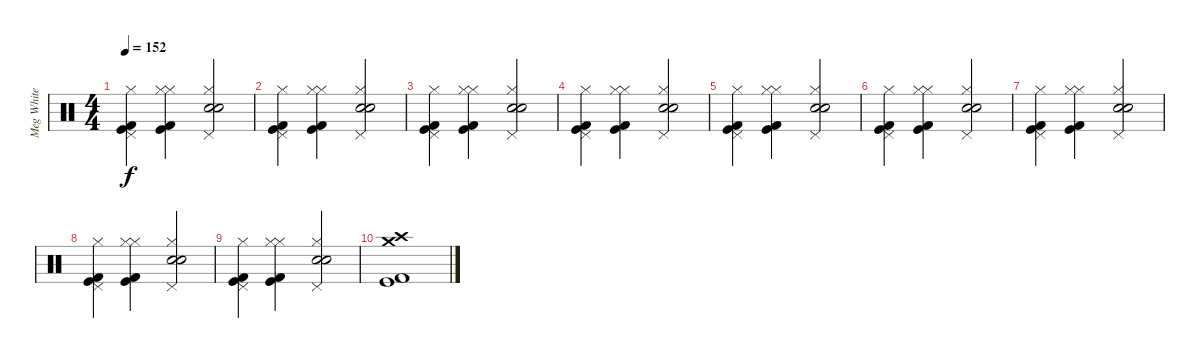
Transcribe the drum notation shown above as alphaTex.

\track ("Meg White" "Meg White") {instrument percussion}
\staff {score}
\articulation defaults
\ts (4 4)
\tempo 152
\clef neutral
\ks c
("Kick (hit) 2" "Kick (hit)" "Pedal Hi-Hat (hit)" "Hi-Hat (closed)").4{dy f} ("Kick (hit) 2" "Kick (hit)" "Hi-Hat (closed)" "Hi-Hat (closed)").4 ("Pedal Hi-Hat (hit)" "Electric Snare (hit)" "Snare (hit) 2" "Hi-Hat (closed)").2 |
("Kick (hit) 2" "Kick (hit)" "Pedal Hi-Hat (hit)" "Hi-Hat (closed)").4 ("Kick (hit) 2" "Kick (hit)" "Hi-Hat (closed)" "Hi-Hat (closed)").4 ("Pedal Hi-Hat (hit)" "Electric Snare (hit)" "Snare (hit) 2" "Hi-Hat (closed)").2 |
("Kick (hit) 2" "Kick (hit)" "Pedal Hi-Hat (hit)" "Hi-Hat (closed)").4 ("Kick (hit) 2" "Kick (hit)" "Hi-Hat (closed)" "Hi-Hat (closed)").4 ("Pedal Hi-Hat (hit)" "Electric Snare (hit)" "Snare (hit) 2" "Hi-Hat (closed)").2 |
("Kick (hit) 2" "Kick (hit)" "Pedal Hi-Hat (hit)" "Hi-Hat (closed)").4 ("Kick (hit) 2" "Kick (hit)" "Hi-Hat (closed)" "Hi-Hat (closed)").4 ("Pedal Hi-Hat (hit)" "Electric Snare (hit)" "Snare (hit) 2" "Hi-Hat (closed)").2 |
("Kick (hit) 2" "Kick (hit)" "Pedal Hi-Hat (hit)" "Hi-Hat (closed)").4 ("Kick (hit) 2" "Kick (hit)" "Hi-Hat (closed)" "Hi-Hat (closed)").4 ("Pedal Hi-Hat (hit)" "Electric Snare (hit)" "Snare (hit) 2" "Hi-Hat (closed)").2 |
("Kick (hit) 2" "Kick (hit)" "Pedal Hi-Hat (hit)" "Hi-Hat (closed)").4 ("Kick (hit) 2" "Kick (hit)" "Hi-Hat (closed)" "Hi-Hat (closed)").4 ("Pedal Hi-Hat (hit)" "Electric Snare (hit)" "Snare (hit) 2" "Hi-Hat (closed)").2 |
("Kick (hit) 2" "Kick (hit)" "Pedal Hi-Hat (hit)" "Hi-Hat (closed)").4 ("Kick (hit) 2" "Kick (hit)" "Hi-Hat (closed)" "Hi-Hat (closed)").4 ("Pedal Hi-Hat (hit)" "Electric Snare (hit)" "Snare (hit) 2" "Hi-Hat (closed)").2 |
("Kick (hit) 2" "Kick (hit)" "Pedal Hi-Hat (hit)" "Hi-Hat (closed)").4 ("Kick (hit) 2" "Kick (hit)" "Hi-Hat (closed)" "Hi-Hat (closed)").4 ("Pedal Hi-Hat (hit)" "Electric Snare (hit)" "Snare (hit) 2" "Hi-Hat (closed)").2 |
("Kick (hit) 2" "Kick (hit)" "Pedal Hi-Hat (hit)" "Hi-Hat (closed)").4 ("Kick (hit) 2" "Kick (hit)" "Hi-Hat (closed)" "Hi-Hat (closed)").4 ("Pedal Hi-Hat (hit)" "Electric Snare (hit)" "Snare (hit) 2" "Hi-Hat (closed)").2 |
("Kick (hit) 2" "Kick (hit)" "Crash medium (hit)" "Crash high (hit)").1
